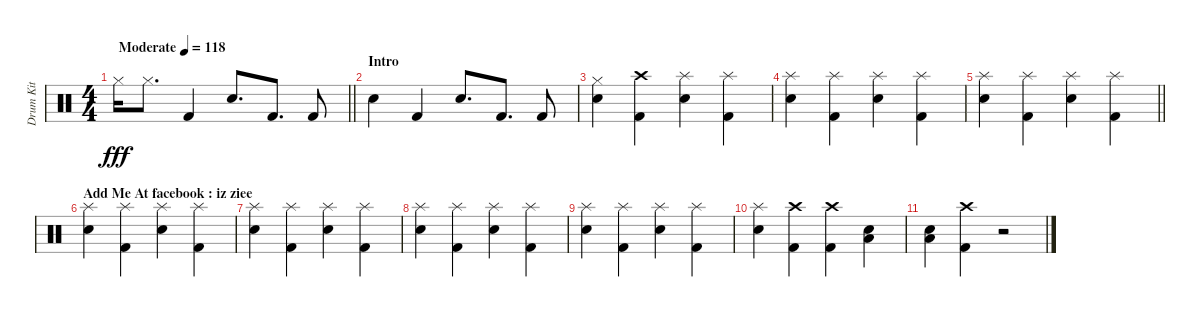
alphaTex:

\track ("Drum Kit" "Drum Kit") {instrument percussion}
\staff {score}
\articulation defaults
\ts (4 4)
\tempo (118 "Moderate")
\clef neutral
\barLineRight lightlight
\ks c "Hi-Hat (closed)".16{dy fff} "Hi-Hat (closed)".8{d} "Kick (hit) 2".4 "Electric Snare (hit)".8{d} "Kick (hit) 2".8{d} "Kick (hit) 2".8
|
\section ("" "Intro")
"Electric Snare (hit)".4 "Kick (hit) 2".4 "Electric Snare (hit)".8{d} "Kick (hit) 2".8{d} "Kick (hit) 2".8 |
("Hi-Hat (closed)" "Electric Snare (hit)").4 ("Kick (hit) 2" "Crash high (hit)").4 ("Splash (hit)" "Electric Snare (hit)").4 ("Kick (hit) 2" "Splash (hit)").4 |
("Electric Snare (hit)" "Splash (hit)").4 ("Kick (hit) 2" "Splash (hit)").4 ("Electric Snare (hit)" "Splash (hit)").4 ("Splash (hit)" "Kick (hit) 2").4 |
\barLineRight lightlight
("Splash (hit)" "Electric Snare (hit)").4 ("Kick (hit) 2" "Splash (hit)").4 ("Electric Snare (hit)" "Splash (hit)").4 ("Kick (hit) 2" "Splash (hit)").4 |
\section ("" "Add Me At facebook : iz ziee")
("Splash (hit)" "Electric Snare (hit)").4 ("Splash (hit)" "Kick (hit) 2").4 ("Splash (hit)" "Electric Snare (hit)").4 ("Kick (hit) 2" "Splash (hit)").4 |
("Electric Snare (hit)" "Splash (hit)").4 ("Kick (hit) 2" "Splash (hit)").4 ("Electric Snare (hit)" "Splash (hit)").4 ("Splash (hit)" "Kick (hit) 2").4 |
("Splash (hit)" "Electric Snare (hit)").4 ("Splash (hit)" "Kick (hit) 2").4 ("Splash (hit)" "Electric Snare (hit)").4 ("Kick (hit) 2" "Splash (hit)").4 |
("Splash (hit)" "Electric Snare (hit)").4 ("Splash (hit)" "Kick (hit) 2").4 ("Electric Snare (hit)" "Splash (hit)").4 ("Kick (hit) 2" "Splash (hit)").4 |
("Electric Snare (hit)" "Splash (hit)").4 ("Kick (hit) 2" "Crash high (hit)").4 ("Crash high (hit)" "Kick (hit) 2").4 ("Electric Snare (hit)" "Low Floor Tom (hit)").4 |
("Electric Snare (hit)" "Low Floor Tom (hit)").4 ("Kick (hit) 2" "Crash high (hit)").4 r.2
